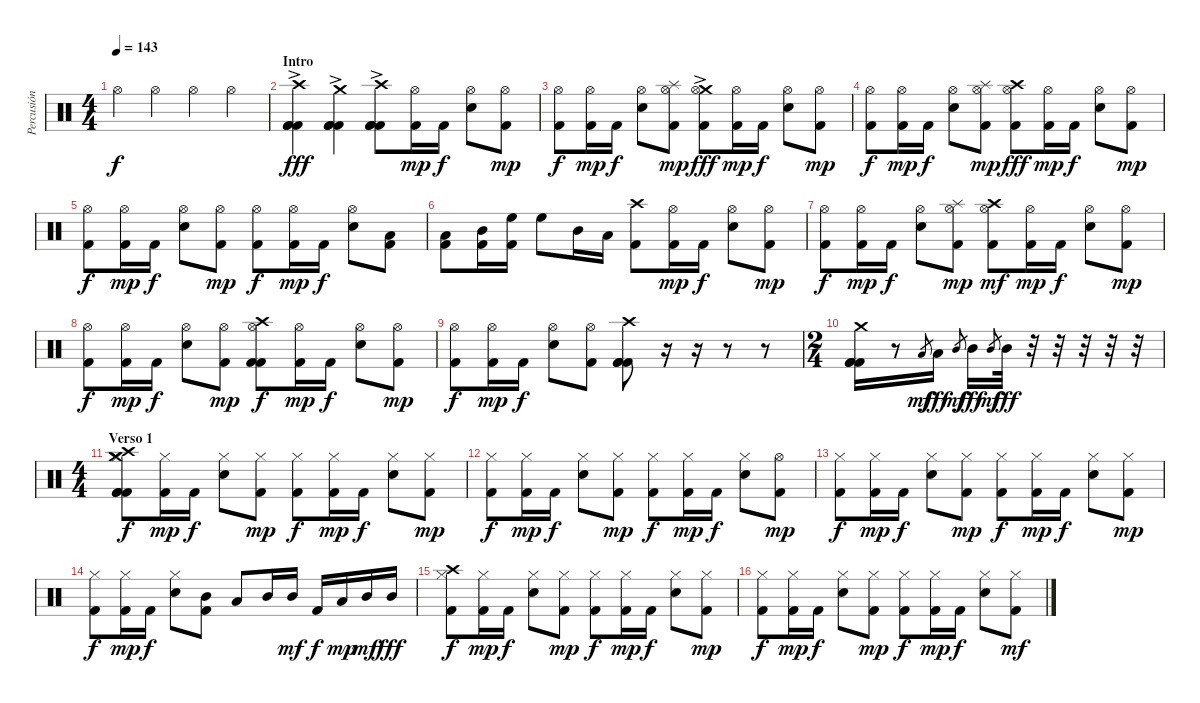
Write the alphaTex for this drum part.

\track ("Percusión" "Percusión") {instrument percussion}
\staff {score}
\articulation defaults
\ts (4 4)
\tempo 143
\clef neutral
\ks c "Hi-Hat (open)".4{dy f} "Hi-Hat (open)".4 "Hi-Hat (open)".4 "Hi-Hat (open)".4
|
\section ("" "Intro")
("Crash high (hit)"{ac} "Kick (hit) 2" "Kick (hit) 2" "Kick (hit) 2").4{dy fff} ("Crash medium (hit)"{ac} "Kick (hit) 2" "Kick (hit) 2" "Kick (hit) 2").4 ("Crash high (hit)"{ac} "Kick (hit) 2" "Kick (hit) 2" "Kick (hit) 2").8 ("Hi-Hat (open)" "Kick (hit) 2").16{dy mp} "Kick (hit) 2".16{dy f} ("Hi-Hat (open)" "Electric Snare (hit)").8 ("Hi-Hat (open)" "Kick (hit) 2").8{dy mp} |
("Hi-Hat (open)" "Kick (hit) 2").8{dy f} ("Hi-Hat (open)" "Kick (hit) 2").16{dy mp} "Kick (hit) 2".16{dy f} ("Hi-Hat (open)" "Electric Snare (hit)").8 ("Splash (hit)" "Hi-Hat (open)" "Kick (hit) 2").8{dy mp} ("Crash medium (hit)"{ac} "Hi-Hat (open)" "Kick (hit) 2").8{dy fff} ("Hi-Hat (open)" "Kick (hit) 2").16{dy mp} "Kick (hit) 2".16{dy f} ("Hi-Hat (open)" "Electric Snare (hit)").8 ("Hi-Hat (open)" "Kick (hit) 2").8{dy mp} |
("Hi-Hat (open)" "Kick (hit) 2").8{dy f} ("Hi-Hat (open)" "Kick (hit) 2").16{dy mp} "Kick (hit) 2".16{dy f} ("Hi-Hat (open)" "Electric Snare (hit)").8 ("Splash (hit)" "Hi-Hat (open)" "Kick (hit) 2").8{dy mp} ("Crash high (hit)" "Hi-Hat (open)" "Kick (hit) 2").8{dy fff} ("Hi-Hat (open)" "Kick (hit) 2").16{dy mp} "Kick (hit) 2".16{dy f} ("Hi-Hat (open)" "Electric Snare (hit)").8 ("Hi-Hat (open)" "Kick (hit) 2").8{dy mp} |
("Hi-Hat (open)" "Kick (hit) 2").8{dy f} ("Hi-Hat (open)" "Kick (hit) 2").16{dy mp} "Kick (hit) 2".16{dy f} ("Hi-Hat (open)" "Electric Snare (hit)").8 ("Hi-Hat (open)" "Kick (hit) 2").8{dy mp} ("Hi-Hat (open)" "Kick (hit) 2").8{dy f} ("Hi-Hat (open)" "Kick (hit) 2").16{dy mp} "Kick (hit) 2".16{dy f} ("Hi-Hat (open)" "Electric Snare (hit)").8 ("Low Floor Tom (hit)" "Kick (hit) 2").8 |
("Low Tom (hit)" "Kick (hit) 2").8 ("Mid Tom (hit)" "Kick (hit) 2").16 ("High Floor Tom (hit)" "Kick (hit) 2").16 "High Floor Tom (hit)".8 "Mid Tom (hit)".16 "Low Tom (hit)".16 ("Crash high (hit)" "Kick (hit) 2").8 ("Hi-Hat (open)" "Kick (hit) 2").16{dy mp} "Kick (hit) 2".16{dy f} ("Hi-Hat (open)" "Electric Snare (hit)").8 ("Hi-Hat (open)" "Kick (hit) 2").8{dy mp} |
("Hi-Hat (open)" "Kick (hit) 2").8{dy f} ("Hi-Hat (open)" "Kick (hit) 2").16{dy mp} "Kick (hit) 2".16{dy f} ("Hi-Hat (open)" "Electric Snare (hit)").8 ("Splash (hit)" "Hi-Hat (open)" "Kick (hit) 2").8{dy mp} ("Crash high (hit)" "Hi-Hat (open)" "Kick (hit) 2").8{dy mf} ("Hi-Hat (open)" "Kick (hit) 2").16{dy mp} "Kick (hit) 2".16{dy f} ("Hi-Hat (open)" "Electric Snare (hit)").8 ("Hi-Hat (open)" "Kick (hit) 2").8{dy mp} |
("Hi-Hat (open)" "Kick (hit) 2").8{dy f} ("Hi-Hat (open)" "Kick (hit) 2").16{dy mp} "Kick (hit) 2".16{dy f} ("Hi-Hat (open)" "Electric Snare (hit)").8 ("Hi-Hat (open)" "Kick (hit) 2").8{dy mp} ("Crash high (hit)" "Hi-Hat (open)" "Kick (hit) 2" "Kick (hit) 2").8{dy f} ("Hi-Hat (open)" "Kick (hit) 2").16{dy mp} "Kick (hit) 2".16{dy f} ("Hi-Hat (open)" "Electric Snare (hit)").8 ("Hi-Hat (open)" "Kick (hit) 2").8{dy mp} |
("Hi-Hat (open)" "Kick (hit) 2").8{dy f} ("Hi-Hat (open)" "Kick (hit) 2").16{dy mp} "Kick (hit) 2".16{dy f} ("Hi-Hat (open)" "Electric Snare (hit)").8 ("Hi-Hat (open)" "Kick (hit) 2").8 ("Crash high (hit)" "Kick (hit) 2" "Kick (hit) 2" "Kick (hit) 2").8 r.16 r.16 r.8 r.8 |
\ts (2 4)
("Crash medium (hit)" "Kick (hit) 2" "Kick (hit) 2" "Kick (hit) 2").16 r.8 "Low Tom (hit)".8{gr dy mf} "Low Tom (hit)".16{dy fff} "Mid Tom (hit)".8{gr dy mf} "Mid Tom (hit)".16{dy fff} "Mid Tom (hit)".8{gr dy mf} "Mid Tom (hit)".32{dy fff} r.32 r.32 r.32 r.32 r.32 |
\ts (4 4)
\section ("" "Verso 1")
("Crash medium (hit)" "Crash high (hit)" "Hi-Hat (closed)" "Kick (hit) 2" "Kick (hit) 2" "Kick (hit) 2").8{dy f} ("Hi-Hat (closed)" "Kick (hit) 2").16{dy mp} "Kick (hit) 2".16{dy f} ("Hi-Hat (closed)" "Electric Snare (hit)").8 ("Hi-Hat (closed)" "Kick (hit) 2").8{dy mp} ("Hi-Hat (closed)" "Kick (hit) 2").8{dy f} ("Hi-Hat (closed)" "Kick (hit) 2").16{dy mp} "Kick (hit) 2".16{dy f} ("Hi-Hat (closed)" "Electric Snare (hit)").8 ("Hi-Hat (closed)" "Kick (hit) 2").8{dy mp} |
("Hi-Hat (closed)" "Kick (hit) 2").8{dy f} ("Hi-Hat (closed)" "Kick (hit) 2").16{dy mp} "Kick (hit) 2".16{dy f} ("Hi-Hat (closed)" "Electric Snare (hit)").8 ("Hi-Hat (closed)" "Kick (hit) 2").8{dy mp} ("Hi-Hat (closed)" "Kick (hit) 2").8{dy f} ("Hi-Hat (closed)" "Kick (hit) 2").16{dy mp} "Kick (hit) 2".16{dy f} ("Hi-Hat (closed)" "Electric Snare (hit)").8 ("Hi-Hat (open)" "Kick (hit) 2").8{dy mp} |
("Hi-Hat (closed)" "Kick (hit) 2").8{dy f} ("Hi-Hat (closed)" "Kick (hit) 2").16{dy mp} "Kick (hit) 2".16{dy f} ("Hi-Hat (closed)" "Electric Snare (hit)").8 ("Hi-Hat (closed)" "Kick (hit) 2").8{dy mp} ("Hi-Hat (closed)" "Kick (hit) 2").8{dy f} ("Hi-Hat (closed)" "Kick (hit) 2").16{dy mp} "Kick (hit) 2".16{dy f} ("Hi-Hat (closed)" "Electric Snare (hit)").8 ("Hi-Hat (closed)" "Kick (hit) 2").8{dy mp} |
("Hi-Hat (closed)" "Kick (hit) 2").8{dy f} ("Hi-Hat (closed)" "Kick (hit) 2").16{dy mp} "Kick (hit) 2".16{dy f} ("Hi-Hat (closed)" "Electric Snare (hit)").8 ("Mid Tom (hit)" "Kick (hit) 2").8 "Low Tom (hit)".8 "Mid Tom (hit)".16 "Mid Tom (hit)".16{dy mf} "Kick (hit) 2".16{dy f} "Low Tom (hit)".16{dy mp} "Mid Tom (hit)".16{dy mf} "Mid Tom (hit)".16{dy fff} |
("Crash high (hit)" "Hi-Hat (closed)" "Kick (hit) 2").8{dy f} ("Hi-Hat (closed)" "Kick (hit) 2").16{dy mp} "Kick (hit) 2".16{dy f} ("Hi-Hat (closed)" "Electric Snare (hit)").8 ("Hi-Hat (closed)" "Kick (hit) 2").8{dy mp} ("Hi-Hat (closed)" "Kick (hit) 2").8{dy f} ("Hi-Hat (closed)" "Kick (hit) 2").16{dy mp} "Kick (hit) 2".16{dy f} ("Hi-Hat (closed)" "Electric Snare (hit)").8 ("Hi-Hat (closed)" "Kick (hit) 2").8{dy mp} |
("Hi-Hat (closed)" "Kick (hit) 2").8{dy f} ("Hi-Hat (closed)" "Kick (hit) 2").16{dy mp} "Kick (hit) 2".16{dy f} ("Hi-Hat (closed)" "Electric Snare (hit)").8 ("Hi-Hat (closed)" "Kick (hit) 2").8{dy mp} ("Hi-Hat (closed)" "Kick (hit) 2").8{dy f} ("Hi-Hat (closed)" "Kick (hit) 2").16{dy mp} "Kick (hit) 2".16{dy f} ("Hi-Hat (closed)" "Electric Snare (hit)").8 ("Hi-Hat (closed)" "Kick (hit) 2").8{dy mf}
